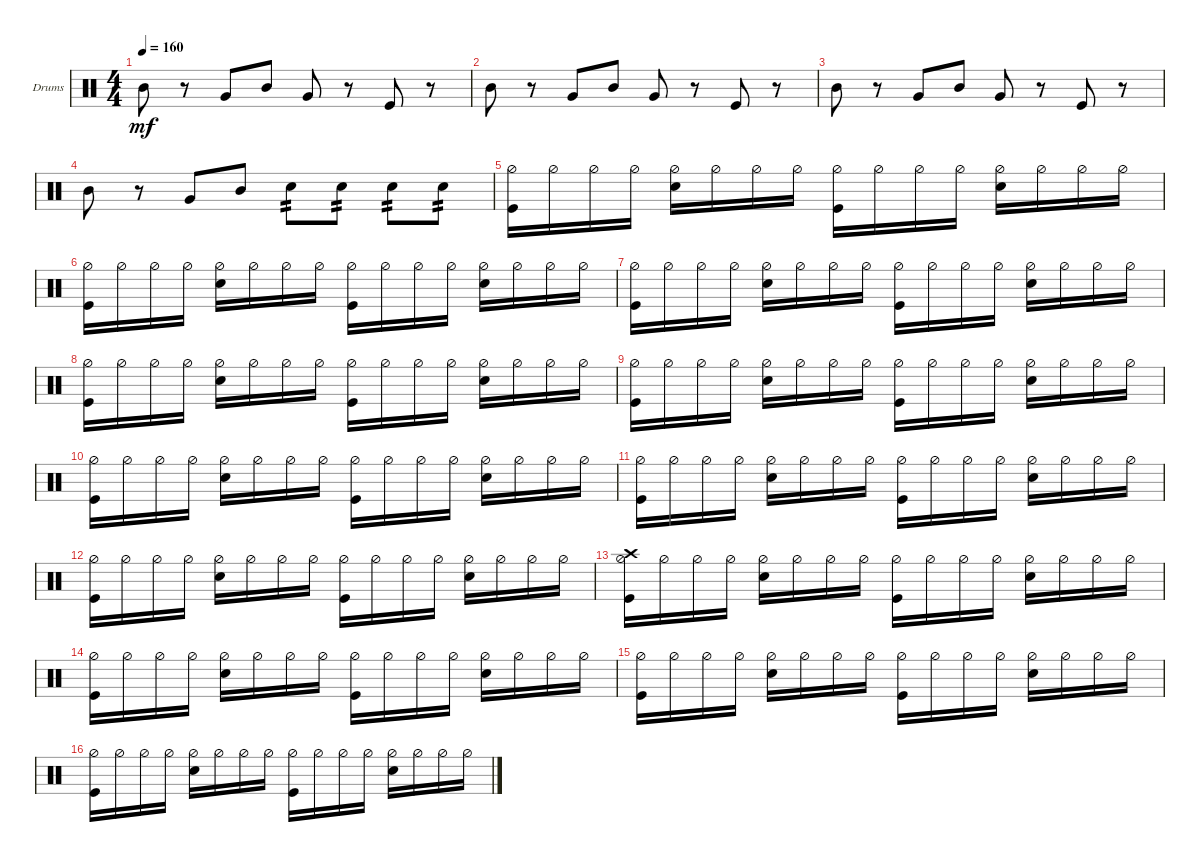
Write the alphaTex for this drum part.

\defaultSystemsLayout 4
\bracketExtendMode groupsimilarinstruments
\firstSystemTrackNameOrientation horizontal
\otherSystemsTrackNameOrientation horizontal
\track ("Drumkit" "Drums") {instrument percussion}
\staff {score}
\articulation defaults
\ts (4 4)
\tempo 160
\clef neutral
\ks c "Mid Tom (hit)".8{dy mf}
r.8 "Very Low Tom (hit)".8 "Mid Tom (hit)".8 "Very Low Tom (hit)".8 r.8 "Kick (hit)".8 r.8 |
"Mid Tom (hit)".8 r.8 "Very Low Tom (hit)".8 "Mid Tom (hit)".8 "Very Low Tom (hit)".8 r.8 "Kick (hit)".8 r.8 |
"Mid Tom (hit)".8 r.8 "Very Low Tom (hit)".8 "Mid Tom (hit)".8 "Very Low Tom (hit)".8 r.8 "Kick (hit)".8 r.8 |
"Mid Tom (hit)".8 r.8 "Very Low Tom (hit)".8 "Mid Tom (hit)".8 "Snare (hit) 2".8{tp 2} "Snare (hit) 2".8{tp 2} "Snare (hit) 2".8{tp 2} "Snare (hit) 2".8{tp 2} |
("Hi-Hat (half)" "Kick (hit)").16 "Hi-Hat (half)".16 "Hi-Hat (half)".16 "Hi-Hat (half)".16 ("Hi-Hat (half)" "Snare (hit) 2").16 "Hi-Hat (half)".16 "Hi-Hat (half)".16 "Hi-Hat (half)".16 ("Hi-Hat (half)" "Kick (hit)").16 "Hi-Hat (half)".16 "Hi-Hat (half)".16 "Hi-Hat (half)".16 ("Hi-Hat (half)" "Snare (hit) 2").16 "Hi-Hat (half)".16 "Hi-Hat (half)".16 "Hi-Hat (half)".16 |
("Hi-Hat (half)" "Kick (hit)").16 "Hi-Hat (half)".16 "Hi-Hat (half)".16 "Hi-Hat (half)".16 ("Hi-Hat (half)" "Snare (hit) 2").16 "Hi-Hat (half)".16 "Hi-Hat (half)".16 "Hi-Hat (half)".16 ("Hi-Hat (half)" "Kick (hit)").16 "Hi-Hat (half)".16 "Hi-Hat (half)".16 "Hi-Hat (half)".16 ("Hi-Hat (half)" "Snare (hit) 2").16 "Hi-Hat (half)".16 "Hi-Hat (half)".16 "Hi-Hat (half)".16 |
("Hi-Hat (half)" "Kick (hit)").16 "Hi-Hat (half)".16 "Hi-Hat (half)".16 "Hi-Hat (half)".16 ("Hi-Hat (half)" "Snare (hit) 2").16 "Hi-Hat (half)".16 "Hi-Hat (half)".16 "Hi-Hat (half)".16 ("Hi-Hat (half)" "Kick (hit)").16 "Hi-Hat (half)".16 "Hi-Hat (half)".16 "Hi-Hat (half)".16 ("Hi-Hat (half)" "Snare (hit) 2").16 "Hi-Hat (half)".16 "Hi-Hat (half)".16 "Hi-Hat (half)".16 |
("Hi-Hat (half)" "Kick (hit)").16 "Hi-Hat (half)".16 "Hi-Hat (half)".16 "Hi-Hat (half)".16 ("Hi-Hat (half)" "Snare (hit) 2").16 "Hi-Hat (half)".16 "Hi-Hat (half)".16 "Hi-Hat (half)".16 ("Hi-Hat (half)" "Kick (hit)").16 "Hi-Hat (half)".16 "Hi-Hat (half)".16 "Hi-Hat (half)".16 ("Hi-Hat (half)" "Snare (hit) 2").16 "Hi-Hat (half)".16 "Hi-Hat (half)".16 "Hi-Hat (half)".16 |
("Hi-Hat (half)" "Kick (hit)").16 "Hi-Hat (half)".16 "Hi-Hat (half)".16 "Hi-Hat (half)".16 ("Hi-Hat (half)" "Snare (hit) 2").16 "Hi-Hat (half)".16 "Hi-Hat (half)".16 "Hi-Hat (half)".16 ("Hi-Hat (half)" "Kick (hit)").16 "Hi-Hat (half)".16 "Hi-Hat (half)".16 "Hi-Hat (half)".16 ("Hi-Hat (half)" "Snare (hit) 2").16 "Hi-Hat (half)".16 "Hi-Hat (half)".16 "Hi-Hat (half)".16 |
("Hi-Hat (half)" "Kick (hit)").16 "Hi-Hat (half)".16 "Hi-Hat (half)".16 "Hi-Hat (half)".16 ("Hi-Hat (half)" "Snare (hit) 2").16 "Hi-Hat (half)".16 "Hi-Hat (half)".16 "Hi-Hat (half)".16 ("Hi-Hat (half)" "Kick (hit)").16 "Hi-Hat (half)".16 "Hi-Hat (half)".16 "Hi-Hat (half)".16 ("Hi-Hat (half)" "Snare (hit) 2").16 "Hi-Hat (half)".16 "Hi-Hat (half)".16 "Hi-Hat (half)".16 |
("Hi-Hat (half)" "Kick (hit)").16 "Hi-Hat (half)".16 "Hi-Hat (half)".16 "Hi-Hat (half)".16 ("Hi-Hat (half)" "Snare (hit) 2").16 "Hi-Hat (half)".16 "Hi-Hat (half)".16 "Hi-Hat (half)".16 ("Hi-Hat (half)" "Kick (hit)").16 "Hi-Hat (half)".16 "Hi-Hat (half)".16 "Hi-Hat (half)".16 ("Hi-Hat (half)" "Snare (hit) 2").16 "Hi-Hat (half)".16 "Hi-Hat (half)".16 "Hi-Hat (half)".16 |
("Hi-Hat (half)" "Kick (hit)").16 "Hi-Hat (half)".16 "Hi-Hat (half)".16 "Hi-Hat (half)".16 ("Hi-Hat (half)" "Snare (hit) 2").16 "Hi-Hat (half)".16 "Hi-Hat (half)".16 "Hi-Hat (half)".16 ("Hi-Hat (half)" "Kick (hit)").16 "Hi-Hat (half)".16 "Hi-Hat (half)".16 "Hi-Hat (half)".16 ("Hi-Hat (half)" "Snare (hit) 2").16 "Hi-Hat (half)".16 "Hi-Hat (half)".16 "Hi-Hat (half)".16 |
("Hi-Hat (half)" "Kick (hit)" "Crash high (hit)").16 "Hi-Hat (half)".16 "Hi-Hat (half)".16 "Hi-Hat (half)".16 ("Hi-Hat (half)" "Snare (hit) 2").16 "Hi-Hat (half)".16 "Hi-Hat (half)".16 "Hi-Hat (half)".16 ("Hi-Hat (half)" "Kick (hit)").16 "Hi-Hat (half)".16 "Hi-Hat (half)".16 "Hi-Hat (half)".16 ("Hi-Hat (half)" "Snare (hit) 2").16 "Hi-Hat (half)".16 "Hi-Hat (half)".16 "Hi-Hat (half)".16 |
("Hi-Hat (half)" "Kick (hit)").16 "Hi-Hat (half)".16 "Hi-Hat (half)".16 "Hi-Hat (half)".16 ("Hi-Hat (half)" "Snare (hit) 2").16 "Hi-Hat (half)".16 "Hi-Hat (half)".16 "Hi-Hat (half)".16 ("Hi-Hat (half)" "Kick (hit)").16 "Hi-Hat (half)".16 "Hi-Hat (half)".16 "Hi-Hat (half)".16 ("Hi-Hat (half)" "Snare (hit) 2").16 "Hi-Hat (half)".16 "Hi-Hat (half)".16 "Hi-Hat (half)".16 |
("Hi-Hat (half)" "Kick (hit)").16 "Hi-Hat (half)".16 "Hi-Hat (half)".16 "Hi-Hat (half)".16 ("Hi-Hat (half)" "Snare (hit) 2").16 "Hi-Hat (half)".16 "Hi-Hat (half)".16 "Hi-Hat (half)".16 ("Hi-Hat (half)" "Kick (hit)").16 "Hi-Hat (half)".16 "Hi-Hat (half)".16 "Hi-Hat (half)".16 ("Hi-Hat (half)" "Snare (hit) 2").16 "Hi-Hat (half)".16 "Hi-Hat (half)".16 "Hi-Hat (half)".16 |
("Hi-Hat (half)" "Kick (hit)").16 "Hi-Hat (half)".16 "Hi-Hat (half)".16 "Hi-Hat (half)".16 ("Hi-Hat (half)" "Snare (hit) 2").16 "Hi-Hat (half)".16 "Hi-Hat (half)".16 "Hi-Hat (half)".16 ("Hi-Hat (half)" "Kick (hit)").16 "Hi-Hat (half)".16 "Hi-Hat (half)".16 "Hi-Hat (half)".16 ("Hi-Hat (half)" "Snare (hit) 2").16 "Hi-Hat (half)".16 "Hi-Hat (half)".16 "Hi-Hat (half)".16
